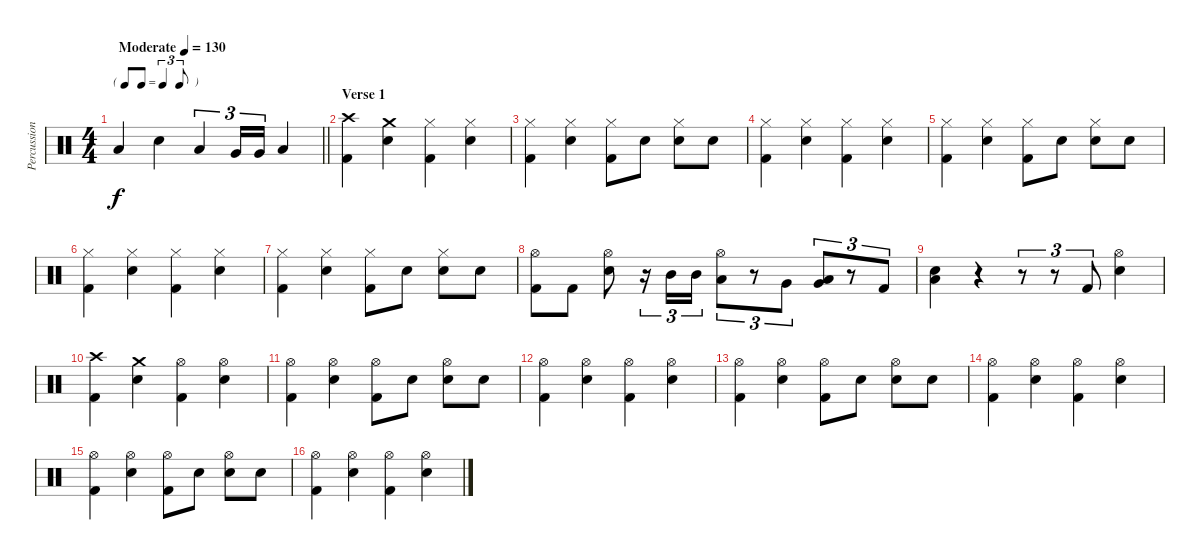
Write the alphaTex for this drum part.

\track ("Percussion" "Percussion") {instrument percussion}
\staff {score}
\articulation defaults
\ts (4 4)
\tf triplet8th
\tempo (130 "Moderate")
\clef neutral
\barLineRight lightlight
\ks c "Low Floor Tom (hit)".4{dy f} "Snare (hit) 2".4 "Low Tom (hit)".4{tu (3 2)} "Very Low Tom (hit)".16{tu (3 2)} "Very Low Tom (hit)".16{tu (3 2)} "Low Floor Tom (hit)".4
|
\section ("" "Verse 1")
("Crash high (hit)" "Kick (hit) 2").4 ("Crash medium (hit)" "Snare (hit) 2").4 ("Hi-Hat (closed)" "Kick (hit) 2").4 ("Hi-Hat (closed)" "Snare (hit) 2").4 |
("Hi-Hat (closed)" "Kick (hit) 2").4 ("Hi-Hat (closed)" "Snare (hit) 2").4 ("Hi-Hat (closed)" "Kick (hit) 2").8 "Snare (hit) 2".8 ("Hi-Hat (closed)" "Snare (hit) 2").8 "Snare (hit) 2".8 |
("Hi-Hat (closed)" "Kick (hit) 2").4 ("Hi-Hat (closed)" "Snare (hit) 2").4 ("Hi-Hat (closed)" "Kick (hit) 2").4 ("Hi-Hat (closed)" "Snare (hit) 2").4 |
("Hi-Hat (closed)" "Kick (hit) 2").4 ("Hi-Hat (closed)" "Snare (hit) 2").4 ("Hi-Hat (closed)" "Kick (hit) 2").8 "Snare (hit) 2".8 ("Hi-Hat (closed)" "Snare (hit) 2").8 "Snare (hit) 2".8 |
("Hi-Hat (closed)" "Kick (hit) 2").4 ("Hi-Hat (closed)" "Snare (hit) 2").4 ("Hi-Hat (closed)" "Kick (hit) 2").4 ("Hi-Hat (closed)" "Snare (hit) 2").4 |
("Hi-Hat (closed)" "Kick (hit) 2").4 ("Hi-Hat (closed)" "Snare (hit) 2").4 ("Hi-Hat (closed)" "Kick (hit) 2").8 "Snare (hit) 2".8 ("Hi-Hat (closed)" "Snare (hit) 2").8 "Snare (hit) 2".8 |
("Hi-Hat (open)" "Kick (hit) 2").8 "Kick (hit) 2".8 ("Hi-Hat (open)" "Snare (hit) 2").8 r.16{tu (3 2)} "Mid Tom (hit)".16{tu (3 2)} "Mid Tom (hit)".16{tu (3 2)} ("Hi-Hat (open)" "Low Tom (hit)").8{tu (3 2)} r.8{tu (3 2)} "Very Low Tom (hit)".8{tu (3 2)} ("Very Low Tom (hit)" "Low Floor Tom (hit)").8{tu (3 2)} r.8{tu (3 2)} "Kick (hit) 2".8{tu (3 2)} |
("Snare (hit) 2" "Low Floor Tom (hit)").4 r.4 r.8{tu (3 2)} r.8{tu (3 2)} "Kick (hit) 2".8{tu (3 2)} ("Hi-Hat (open)" "Snare (hit) 2").4 |
("Crash high (hit)" "Kick (hit) 2").4 ("Crash medium (hit)" "Snare (hit) 2").4 ("Hi-Hat (open)" "Kick (hit) 2").4 ("Hi-Hat (open)" "Snare (hit) 2").4 |
("Hi-Hat (open)" "Kick (hit) 2").4 ("Hi-Hat (open)" "Snare (hit) 2").4 ("Hi-Hat (open)" "Kick (hit) 2").8 "Snare (hit) 2".8 ("Hi-Hat (open)" "Snare (hit) 2").8 "Snare (hit) 2".8 |
("Hi-Hat (open)" "Kick (hit) 2").4 ("Hi-Hat (open)" "Snare (hit) 2").4 ("Hi-Hat (open)" "Kick (hit) 2").4 ("Hi-Hat (open)" "Snare (hit) 2").4 |
("Hi-Hat (open)" "Kick (hit) 2").4 ("Hi-Hat (open)" "Snare (hit) 2").4 ("Hi-Hat (open)" "Kick (hit) 2").8 "Snare (hit) 2".8 ("Hi-Hat (open)" "Snare (hit) 2").8 "Snare (hit) 2".8 |
("Hi-Hat (open)" "Kick (hit) 2").4 ("Hi-Hat (open)" "Snare (hit) 2").4 ("Hi-Hat (open)" "Kick (hit) 2").4 ("Hi-Hat (open)" "Snare (hit) 2").4 |
("Hi-Hat (open)" "Kick (hit) 2").4 ("Hi-Hat (open)" "Snare (hit) 2").4 ("Hi-Hat (open)" "Kick (hit) 2").8 "Snare (hit) 2".8 ("Hi-Hat (open)" "Snare (hit) 2").8 "Snare (hit) 2".8 |
("Hi-Hat (open)" "Kick (hit) 2").4 ("Hi-Hat (open)" "Snare (hit) 2").4 ("Hi-Hat (open)" "Kick (hit) 2").4 ("Hi-Hat (open)" "Snare (hit) 2").4
